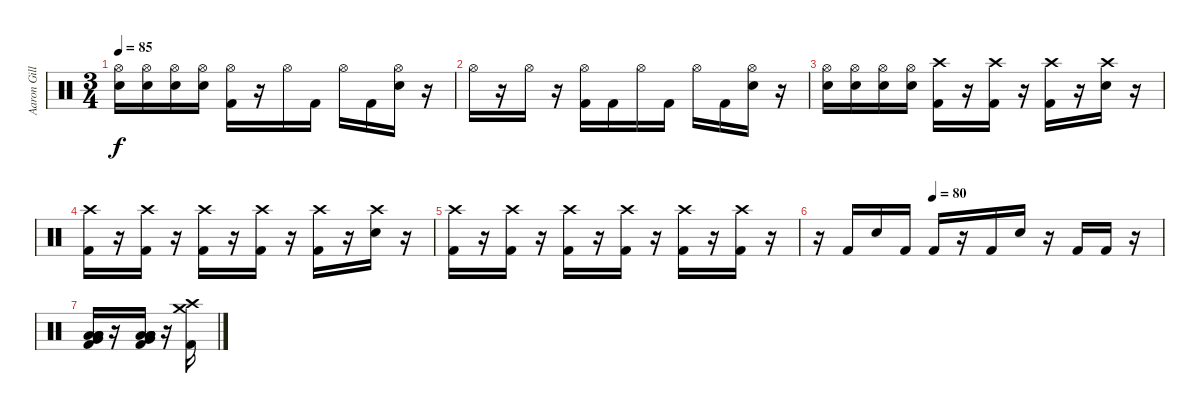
\track ("Aaron Gillespie" "Aaron Gill") {instrument percussion}
\staff {score}
\articulation defaults
\ts (3 4)
\tempo 85
\clef neutral
\ks c
("Hi-Hat (open)" "Electric Snare (hit)").16{dy f} ("Hi-Hat (open)" "Electric Snare (hit)").16 ("Hi-Hat (open)" "Electric Snare (hit)").16 ("Hi-Hat (open)" "Electric Snare (hit)").16 ("Hi-Hat (open)" "Kick (hit) 2").16 r.16 "Hi-Hat (open)".16 "Kick (hit) 2".16 "Hi-Hat (open)".16 "Kick (hit) 2".16 ("Hi-Hat (open)" "Electric Snare (hit)").16 r.16 |
"Hi-Hat (open)".16 r.16 "Hi-Hat (open)".16 r.16 ("Hi-Hat (open)" "Kick (hit) 2").16 "Kick (hit) 2".16 "Hi-Hat (open)".16 "Kick (hit) 2".16 "Hi-Hat (open)".16 "Kick (hit) 2".16 ("Hi-Hat (open)" "Electric Snare (hit)").16 r.16 |
("Hi-Hat (open)" "Electric Snare (hit)").16 ("Hi-Hat (open)" "Electric Snare (hit)").16 ("Hi-Hat (open)" "Electric Snare (hit)").16 ("Hi-Hat (open)" "Electric Snare (hit)").16 ("Crash high (hit)" "Kick (hit) 2").16 r.16 ("Crash high (hit)" "Kick (hit) 2").16 r.16 ("Crash high (hit)" "Kick (hit) 2").16 r.16 ("Crash high (hit)" "Electric Snare (hit)").16 r.16 |
("Crash high (hit)" "Kick (hit) 2").16 r.16 ("Crash high (hit)" "Kick (hit) 2").16 r.16 ("Crash high (hit)" "Kick (hit) 2").16 r.16 ("Crash high (hit)" "Kick (hit) 2").16 r.16 ("Crash high (hit)" "Kick (hit) 2").16 r.16 ("Crash high (hit)" "Electric Snare (hit)").16 r.16 |
("Crash high (hit)" "Kick (hit) 2").16 r.16 ("Crash high (hit)" "Kick (hit) 2").16 r.16 ("Crash high (hit)" "Kick (hit) 2").16 r.16 ("Crash high (hit)" "Kick (hit) 2").16 r.16 ("Crash high (hit)" "Kick (hit) 2").16 r.16 ("Crash high (hit)" "Kick (hit) 2").16 r.16 |
\tempo (80 0.3333333333333333)
r.16 "Kick (hit) 2".16 "Electric Snare (hit)".16 "Kick (hit) 2".16 "Kick (hit) 2".16 r.16 "Kick (hit) 2".16 "Electric Snare (hit)".16 r.16 "Kick (hit) 2".16 "Kick (hit) 2".16 r.16 |
("Very Low Tom (hit)" "Low Floor Tom (hit)" "Low Floor Tom (hit)" "Low Floor Tom (hit)" "Kick (hit) 2" "Low Floor Tom (hit)").16 r.16 ("Very Low Tom (hit)" "Low Floor Tom (hit)" "Low Floor Tom (hit)" "Low Floor Tom (hit)" "Kick (hit) 2" "Low Floor Tom (hit)").16 r.16 ("Crash medium (hit)" "Crash high (hit)" "Kick (hit) 2").16
